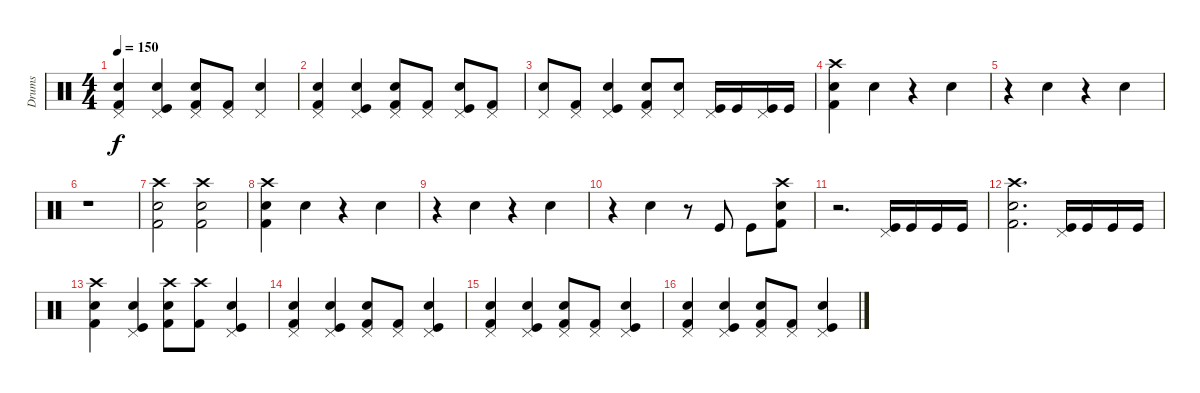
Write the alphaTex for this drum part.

\track ("Drums" "Drums") {instrument percussion}
\staff {score}
\articulation defaults
\ts (4 4)
\tempo 150
\clef neutral
\ks c
("Kick (hit) 2" "Electric Snare (hit)" "Pedal Hi-Hat (hit)").4{dy f} ("Kick (hit)" "Electric Snare (hit)" "Pedal Hi-Hat (hit)").4 ("Kick (hit) 2" "Electric Snare (hit)" "Pedal Hi-Hat (hit)").8 ("Kick (hit) 2" "Pedal Hi-Hat (hit)").8 ("Electric Snare (hit)" "Pedal Hi-Hat (hit)").4 |
("Kick (hit) 2" "Electric Snare (hit)" "Pedal Hi-Hat (hit)").4 ("Kick (hit)" "Electric Snare (hit)" "Pedal Hi-Hat (hit)").4 ("Kick (hit) 2" "Electric Snare (hit)" "Pedal Hi-Hat (hit)").8 ("Kick (hit) 2" "Pedal Hi-Hat (hit)").8 ("Kick (hit)" "Electric Snare (hit)" "Pedal Hi-Hat (hit)").8 ("Kick (hit) 2" "Pedal Hi-Hat (hit)").8 |
("Electric Snare (hit)" "Pedal Hi-Hat (hit)").8 ("Kick (hit) 2" "Pedal Hi-Hat (hit)").8 ("Kick (hit)" "Electric Snare (hit)" "Pedal Hi-Hat (hit)").4 ("Kick (hit) 2" "Electric Snare (hit)" "Pedal Hi-Hat (hit)").8 ("Electric Snare (hit)" "Pedal Hi-Hat (hit)").8 ("Kick (hit)" "Pedal Hi-Hat (hit)").16 "Kick (hit)".16 ("Kick (hit)" "Pedal Hi-Hat (hit)").16 "Kick (hit)".16 |
("Kick (hit) 2" "Electric Snare (hit)" "Crash high (hit)").4 "Electric Snare (hit)".4 r.4 "Electric Snare (hit)".4 |
r.4 "Electric Snare (hit)".4 r.4 "Electric Snare (hit)".4 |
r.1 |
("Kick (hit) 2" "Electric Snare (hit)" "Crash high (hit)").2 ("Kick (hit) 2" "Electric Snare (hit)" "Crash high (hit)").2 |
("Kick (hit) 2" "Electric Snare (hit)" "Crash high (hit)").4 "Electric Snare (hit)".4 r.4 "Electric Snare (hit)".4 |
r.4 "Electric Snare (hit)".4 r.4 "Electric Snare (hit)".4 |
r.4 "Electric Snare (hit)".4 r.8 "Kick (hit)".8 "Kick (hit)".8 ("Kick (hit) 2" "Electric Snare (hit)" "Crash high (hit)").8 |
r.2{d} ("Kick (hit)" "Pedal Hi-Hat (hit)").16 "Kick (hit)".16 "Kick (hit)".16 "Kick (hit)".16 |
("Kick (hit) 2" "Electric Snare (hit)" "Crash high (hit)").2{d} ("Kick (hit)" "Pedal Hi-Hat (hit)").16 "Kick (hit)".16 "Kick (hit)".16 "Kick (hit)".16 |
("Kick (hit) 2" "Electric Snare (hit)" "Crash high (hit)").4 ("Kick (hit)" "Electric Snare (hit)" "Pedal Hi-Hat (hit)").4 ("Kick (hit) 2" "Electric Snare (hit)" "Crash high (hit)").8 ("Kick (hit) 2" "Crash high (hit)").8 ("Kick (hit)" "Electric Snare (hit)" "Pedal Hi-Hat (hit)").4 |
("Kick (hit) 2" "Electric Snare (hit)" "Pedal Hi-Hat (hit)").4 ("Kick (hit)" "Electric Snare (hit)" "Pedal Hi-Hat (hit)").4 ("Kick (hit) 2" "Electric Snare (hit)" "Pedal Hi-Hat (hit)").8 ("Kick (hit) 2" "Pedal Hi-Hat (hit)").8 ("Kick (hit)" "Electric Snare (hit)" "Pedal Hi-Hat (hit)").4 |
("Kick (hit) 2" "Electric Snare (hit)" "Pedal Hi-Hat (hit)").4 ("Kick (hit)" "Electric Snare (hit)" "Pedal Hi-Hat (hit)").4 ("Kick (hit) 2" "Electric Snare (hit)" "Pedal Hi-Hat (hit)").8 ("Kick (hit) 2" "Pedal Hi-Hat (hit)").8 ("Kick (hit)" "Electric Snare (hit)" "Pedal Hi-Hat (hit)").4 |
("Kick (hit) 2" "Electric Snare (hit)" "Pedal Hi-Hat (hit)").4 ("Kick (hit)" "Electric Snare (hit)" "Pedal Hi-Hat (hit)").4 ("Kick (hit) 2" "Electric Snare (hit)" "Pedal Hi-Hat (hit)").8 ("Kick (hit) 2" "Pedal Hi-Hat (hit)").8 ("Kick (hit)" "Electric Snare (hit)" "Pedal Hi-Hat (hit)").4
